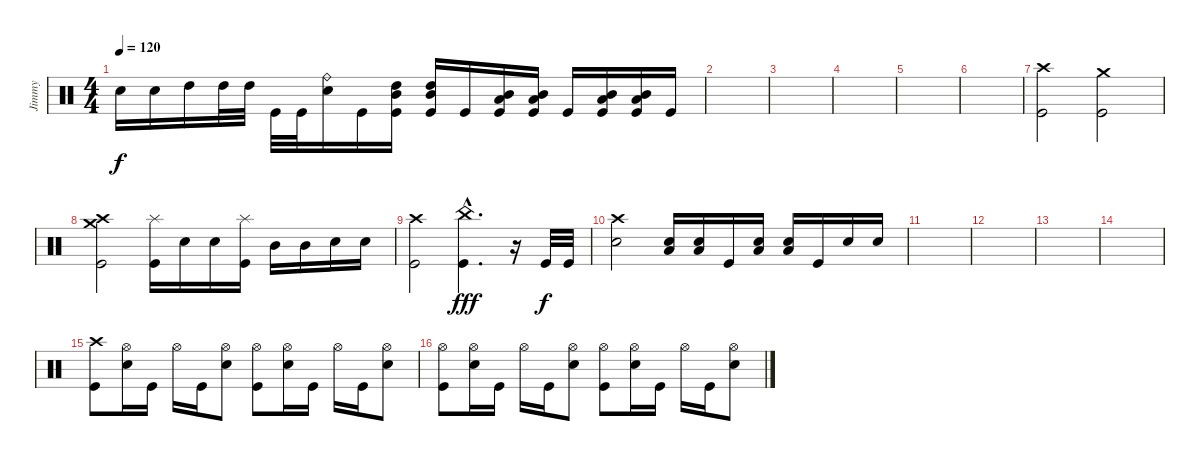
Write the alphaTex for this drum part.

\track ("Jimmy" "Jimmy") {instrument percussion}
\staff {score}
\articulation defaults
\ts (4 4)
\tempo 120
\clef neutral
\ks c "Snare (hit) 2".16{dy f} "Snare (hit) 2".16 "High Tom (hit)".16 "High Tom (hit)".32 "High Tom (hit)".32 "Kick (hit)".32 "Kick (hit)".32
("Snare (hit) 2" "Ride (bell)").16 "Kick (hit)".16 ("Mid Tom (hit)" "Kick (hit)" "High Tom (hit)").16 ("Mid Tom (hit)" "Kick (hit)" "High Tom (hit)").16 "Kick (hit)".16 ("Mid Tom (hit)" "Kick (hit)" "Low Tom (hit)").16 ("Mid Tom (hit)" "Kick (hit)" "Low Tom (hit)").16 "Kick (hit)".16 ("Mid Tom (hit)" "Kick (hit)" "Low Tom (hit)").16 ("Mid Tom (hit)" "Low Tom (hit)" "Kick (hit)").16 "Kick (hit)".16 |
|
|
|
|
|
("Kick (hit)" "Crash high (hit)").2 ("Kick (hit)" "Crash medium (hit)").2 |
("Kick (hit)" "Crash high (hit)" "Crash medium (hit)").2 ("Kick (hit)" "Splash (hit)").16 "Snare (hit) 2".16 "Snare (hit) 2".16 ("Kick (hit)" "Splash (hit)").16 "Mid Tom (hit)".16 "Mid Tom (hit)".16 "Snare (hit) 2".16 "Snare (hit) 2".16 |
("Kick (hit)" "Crash high (hit)").2 ("Kick (hit)"{hac} "China (hit)").4{d dy fff} r.16 "Kick (hit)".32{dy f} "Kick (hit)".32 |
("Snare (hit) 2" "Crash high (hit)").2 ("Snare (hit) 2" "Low Tom (hit)").16 ("Snare (hit) 2" "Low Tom (hit)").16 "Kick (hit)".16 ("Snare (hit) 2" "Low Tom (hit)").16 ("Snare (hit) 2" "Low Tom (hit)").16 "Kick (hit)".16 "Snare (hit) 2".16 "Snare (hit) 2".16 |
|
|
|
|
("Crash high (hit)" "Kick (hit)").8 ("Hi-Hat (open)" "Snare (hit) 2").16 "Kick (hit)".16 "Hi-Hat (open)".16 "Kick (hit)".16 ("Snare (hit) 2" "Hi-Hat (open)").8 ("Hi-Hat (open)" "Kick (hit)").8 ("Hi-Hat (open)" "Snare (hit) 2").16 "Kick (hit)".16 "Hi-Hat (open)".16 "Kick (hit)".16 ("Snare (hit) 2" "Hi-Hat (open)").8 |
("Hi-Hat (open)" "Kick (hit)").8 ("Hi-Hat (open)" "Snare (hit) 2").16 "Kick (hit)".16 "Hi-Hat (open)".16 "Kick (hit)".16 ("Snare (hit) 2" "Hi-Hat (open)").8 ("Hi-Hat (open)" "Kick (hit)").8 ("Hi-Hat (open)" "Snare (hit) 2").16 "Kick (hit)".16 "Hi-Hat (open)".16 "Kick (hit)".16 ("Snare (hit) 2" "Hi-Hat (open)").8
